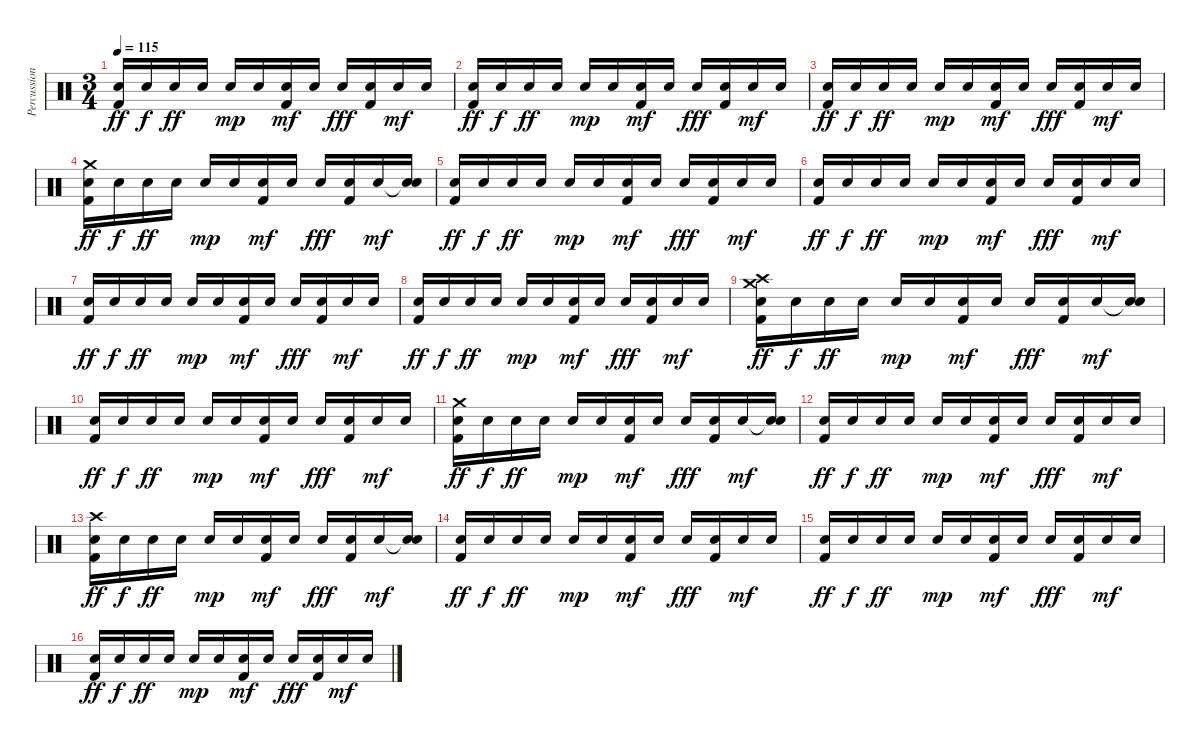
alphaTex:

\track ("Percussion 1" "Percussion") {instrument percussion}
\staff {score}
\articulation defaults
\ts (3 4)
\tempo 115
\clef neutral
\ks c
("Snare (hit) 2" "Kick (hit) 2").16{dy ff} "Snare (hit) 2".16{dy f} "Snare (hit) 2".16{dy ff} "Snare (hit) 2".16 "Snare (hit) 2".16{dy mp} "Snare (hit) 2".16 ("Snare (hit) 2" "Kick (hit) 2").16{dy mf} "Snare (hit) 2".16 "Snare (hit) 2".16{dy fff} ("Snare (hit) 2" "Kick (hit) 2").16 "Snare (hit) 2".16{dy mf} "Snare (hit) 2".16 |
("Snare (hit) 2" "Kick (hit) 2").16{dy ff} "Snare (hit) 2".16{dy f} "Snare (hit) 2".16{dy ff} "Snare (hit) 2".16 "Snare (hit) 2".16{dy mp} "Snare (hit) 2".16 ("Snare (hit) 2" "Kick (hit) 2").16{dy mf} "Snare (hit) 2".16 "Snare (hit) 2".16{dy fff} ("Snare (hit) 2" "Kick (hit) 2").16 "Snare (hit) 2".16{dy mf} "Snare (hit) 2".16 |
("Snare (hit) 2" "Kick (hit) 2").16{dy ff} "Snare (hit) 2".16{dy f} "Snare (hit) 2".16{dy ff} "Snare (hit) 2".16 "Snare (hit) 2".16{dy mp} "Snare (hit) 2".16 ("Snare (hit) 2" "Kick (hit) 2").16{dy mf} "Snare (hit) 2".16 "Snare (hit) 2".16{dy fff} ("Snare (hit) 2" "Kick (hit) 2").16 "Snare (hit) 2".16{dy mf} "Snare (hit) 2".16 |
("Crash medium (hit)" "Snare (hit) 2" "Kick (hit) 2").16{dy ff} "Snare (hit) 2".16{dy f} "Snare (hit) 2".16{dy ff} "Snare (hit) 2".16 "Snare (hit) 2".16{dy mp} "Snare (hit) 2".16 ("Snare (hit) 2" "Kick (hit) 2").16{dy mf} "Snare (hit) 2".16 "Snare (hit) 2".16{dy fff} ("Snare (hit) 2" "Kick (hit) 2").16 "Snare (hit) 2".16{dy mf} ("Snare (hit)"{t} "Snare (hit) 2").16 |
("Snare (hit) 2" "Kick (hit) 2").16{dy ff} "Snare (hit) 2".16{dy f} "Snare (hit) 2".16{dy ff} "Snare (hit) 2".16 "Snare (hit) 2".16{dy mp} "Snare (hit) 2".16 ("Snare (hit) 2" "Kick (hit) 2").16{dy mf} "Snare (hit) 2".16 "Snare (hit) 2".16{dy fff} ("Snare (hit) 2" "Kick (hit) 2").16 "Snare (hit) 2".16{dy mf} "Snare (hit) 2".16 |
("Snare (hit) 2" "Kick (hit) 2").16{dy ff} "Snare (hit) 2".16{dy f} "Snare (hit) 2".16{dy ff} "Snare (hit) 2".16 "Snare (hit) 2".16{dy mp} "Snare (hit) 2".16 ("Snare (hit) 2" "Kick (hit) 2").16{dy mf} "Snare (hit) 2".16 "Snare (hit) 2".16{dy fff} ("Snare (hit) 2" "Kick (hit) 2").16 "Snare (hit) 2".16{dy mf} "Snare (hit) 2".16 |
("Snare (hit) 2" "Kick (hit) 2").16{dy ff} "Snare (hit) 2".16{dy f} "Snare (hit) 2".16{dy ff} "Snare (hit) 2".16 "Snare (hit) 2".16{dy mp} "Snare (hit) 2".16 ("Snare (hit) 2" "Kick (hit) 2").16{dy mf} "Snare (hit) 2".16 "Snare (hit) 2".16{dy fff} ("Snare (hit) 2" "Kick (hit) 2").16 "Snare (hit) 2".16{dy mf} "Snare (hit) 2".16 |
("Snare (hit) 2" "Kick (hit) 2").16{dy ff} "Snare (hit) 2".16{dy f} "Snare (hit) 2".16{dy ff} "Snare (hit) 2".16 "Snare (hit) 2".16{dy mp} "Snare (hit) 2".16 ("Snare (hit) 2" "Kick (hit) 2").16{dy mf} "Snare (hit) 2".16 "Snare (hit) 2".16{dy fff} ("Snare (hit) 2" "Kick (hit) 2").16 "Snare (hit) 2".16{dy mf} "Snare (hit) 2".16 |
("Crash medium (hit)" "Crash high (hit)" "Snare (hit) 2" "Kick (hit) 2").16{dy ff} "Snare (hit) 2".16{dy f} "Snare (hit) 2".16{dy ff} "Snare (hit) 2".16 "Snare (hit) 2".16{dy mp} "Snare (hit) 2".16 ("Snare (hit) 2" "Kick (hit) 2").16{dy mf} "Snare (hit) 2".16 "Snare (hit) 2".16{dy fff} ("Snare (hit) 2" "Kick (hit) 2").16 "Snare (hit) 2".16{dy mf} ("Snare (hit)"{t} "Snare (hit) 2").16 |
("Snare (hit) 2" "Kick (hit) 2").16{dy ff} "Snare (hit) 2".16{dy f} "Snare (hit) 2".16{dy ff} "Snare (hit) 2".16 "Snare (hit) 2".16{dy mp} "Snare (hit) 2".16 ("Snare (hit) 2" "Kick (hit) 2").16{dy mf} "Snare (hit) 2".16 "Snare (hit) 2".16{dy fff} ("Snare (hit) 2" "Kick (hit) 2").16 "Snare (hit) 2".16{dy mf} "Snare (hit) 2".16 |
("Crash medium (hit)" "Snare (hit) 2" "Kick (hit) 2").16{dy ff} "Snare (hit) 2".16{dy f} "Snare (hit) 2".16{dy ff} "Snare (hit) 2".16 "Snare (hit) 2".16{dy mp} "Snare (hit) 2".16 ("Snare (hit) 2" "Kick (hit) 2").16{dy mf} "Snare (hit) 2".16 "Snare (hit) 2".16{dy fff} ("Snare (hit) 2" "Kick (hit) 2").16 "Snare (hit) 2".16{dy mf} ("Snare (hit)"{t} "Snare (hit) 2").16 |
("Snare (hit) 2" "Kick (hit) 2").16{dy ff} "Snare (hit) 2".16{dy f} "Snare (hit) 2".16{dy ff} "Snare (hit) 2".16 "Snare (hit) 2".16{dy mp} "Snare (hit) 2".16 ("Snare (hit) 2" "Kick (hit) 2").16{dy mf} "Snare (hit) 2".16 "Snare (hit) 2".16{dy fff} ("Snare (hit) 2" "Kick (hit) 2").16 "Snare (hit) 2".16{dy mf} "Snare (hit) 2".16 |
("Crash high (hit)" "Snare (hit) 2" "Kick (hit) 2").16{dy ff} "Snare (hit) 2".16{dy f} "Snare (hit) 2".16{dy ff} "Snare (hit) 2".16 "Snare (hit) 2".16{dy mp} "Snare (hit) 2".16 ("Snare (hit) 2" "Kick (hit) 2").16{dy mf} "Snare (hit) 2".16 "Snare (hit) 2".16{dy fff} ("Snare (hit) 2" "Kick (hit) 2").16 "Snare (hit) 2".16{dy mf} ("Snare (hit)"{t} "Snare (hit) 2").16 |
("Snare (hit) 2" "Kick (hit) 2").16{dy ff} "Snare (hit) 2".16{dy f} "Snare (hit) 2".16{dy ff} "Snare (hit) 2".16 "Snare (hit) 2".16{dy mp} "Snare (hit) 2".16 ("Snare (hit) 2" "Kick (hit) 2").16{dy mf} "Snare (hit) 2".16 "Snare (hit) 2".16{dy fff} ("Snare (hit) 2" "Kick (hit) 2").16 "Snare (hit) 2".16{dy mf} "Snare (hit) 2".16 |
("Snare (hit) 2" "Kick (hit) 2").16{dy ff} "Snare (hit) 2".16{dy f} "Snare (hit) 2".16{dy ff} "Snare (hit) 2".16 "Snare (hit) 2".16{dy mp} "Snare (hit) 2".16 ("Snare (hit) 2" "Kick (hit) 2").16{dy mf} "Snare (hit) 2".16 "Snare (hit) 2".16{dy fff} ("Snare (hit) 2" "Kick (hit) 2").16 "Snare (hit) 2".16{dy mf} "Snare (hit) 2".16 |
("Snare (hit) 2" "Kick (hit) 2").16{dy ff} "Snare (hit) 2".16{dy f} "Snare (hit) 2".16{dy ff} "Snare (hit) 2".16 "Snare (hit) 2".16{dy mp} "Snare (hit) 2".16 ("Snare (hit) 2" "Kick (hit) 2").16{dy mf} "Snare (hit) 2".16 "Snare (hit) 2".16{dy fff} ("Snare (hit) 2" "Kick (hit) 2").16 "Snare (hit) 2".16{dy mf} "Snare (hit) 2".16
